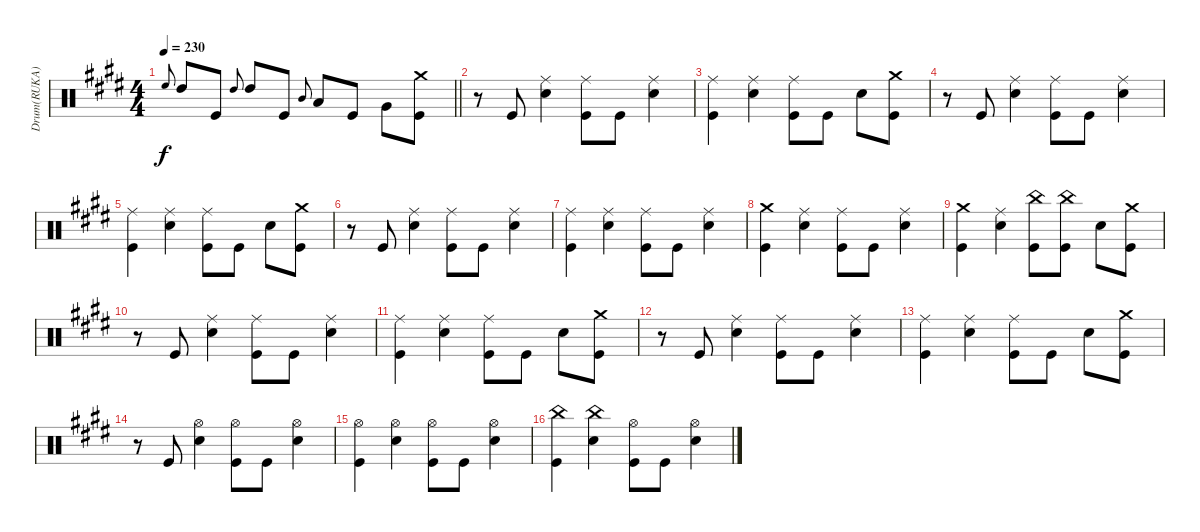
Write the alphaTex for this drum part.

\track ("Drum(RUKA)" "Drum(RUKA)") {instrument percussion}
\staff {score}
\articulation defaults
\ts (4 4)
\tempo 230
\clef neutral
\barLineRight lightlight
\ks e "High Floor Tom (hit)".8{gr onbeat dy f} "High Tom (hit)".8 "Kick (hit)".8 "High Tom (hit)".8{gr onbeat} "High Tom (hit)".8 "Kick (hit)".8 "Mid Tom (hit)".8{gr onbeat} "Low Tom (hit)".8 "Kick (hit)".8 "Very Low Tom (hit)".8
("Crash medium (hit)" "Kick (hit)").8 |
r.8 "Kick (hit)".8 ("Ride (middle)" "Electric Snare (hit)").4 ("Ride (middle)" "Kick (hit)").8 "Kick (hit)".8 ("Ride (middle)" "Electric Snare (hit)").4 |
("Ride (middle)" "Kick (hit)").4 ("Ride (middle)" "Electric Snare (hit)").4 ("Ride (middle)" "Kick (hit)").8 "Kick (hit)".8 "Electric Snare (hit)".8 ("Crash medium (hit)" "Kick (hit)").8 |
r.8 "Kick (hit)".8 ("Ride (middle)" "Electric Snare (hit)").4 ("Ride (middle)" "Kick (hit)").8 "Kick (hit)".8 ("Ride (middle)" "Electric Snare (hit)").4 |
("Ride (middle)" "Kick (hit)").4 ("Ride (middle)" "Electric Snare (hit)").4 ("Ride (middle)" "Kick (hit)").8 "Kick (hit)".8 "Electric Snare (hit)".8 ("Crash medium (hit)" "Kick (hit)").8 |
r.8 "Kick (hit)".8 ("Ride (middle)" "Electric Snare (hit)").4 ("Ride (middle)" "Kick (hit)").8 "Kick (hit)".8 ("Ride (middle)" "Electric Snare (hit)").4 |
("Ride (middle)" "Kick (hit)").4 ("Ride (middle)" "Electric Snare (hit)").4 ("Ride (middle)" "Kick (hit)").8 "Kick (hit)".8 ("Ride (middle)" "Electric Snare (hit)").4 |
("Crash medium (hit)" "Kick (hit)").4 ("Ride (middle)" "Electric Snare (hit)").4 ("Ride (middle)" "Kick (hit)").8 "Kick (hit)".8 ("Ride (middle)" "Electric Snare (hit)").4 |
("Crash medium (hit)" "Kick (hit)").4 ("Ride (middle)" "Electric Snare (hit)").4 ("China (hit)" "Kick (hit)").8 ("China (hit)" "Kick (hit)").8 "Electric Snare (hit)".8 ("Crash medium (hit)" "Kick (hit)").8 |
r.8 "Kick (hit)".8 ("Ride (middle)" "Electric Snare (hit)").4 ("Ride (middle)" "Kick (hit)").8 "Kick (hit)".8 ("Ride (middle)" "Electric Snare (hit)").4 |
("Ride (middle)" "Kick (hit)").4 ("Ride (middle)" "Electric Snare (hit)").4 ("Ride (middle)" "Kick (hit)").8 "Kick (hit)".8 "Electric Snare (hit)".8 ("Crash medium (hit)" "Kick (hit)").8 |
r.8 "Kick (hit)".8 ("Ride (middle)" "Electric Snare (hit)").4 ("Ride (middle)" "Kick (hit)").8 "Kick (hit)".8 ("Ride (middle)" "Electric Snare (hit)").4 |
("Ride (middle)" "Kick (hit)").4 ("Ride (middle)" "Electric Snare (hit)").4 ("Ride (middle)" "Kick (hit)").8 "Kick (hit)".8 "Electric Snare (hit)".8 ("Crash medium (hit)" "Kick (hit)").8 |
r.8 "Kick (hit)".8 ("Hi-Hat (open)" "Electric Snare (hit)").4 ("Hi-Hat (open)" "Kick (hit)").8 "Kick (hit)".8 ("Hi-Hat (open)" "Electric Snare (hit)").4 |
("Hi-Hat (open)" "Kick (hit)").4 ("Hi-Hat (open)" "Electric Snare (hit)").4 ("Hi-Hat (open)" "Kick (hit)").8 "Kick (hit)".8 ("Hi-Hat (open)" "Electric Snare (hit)").4 |
("China (hit)" "Kick (hit)").4 ("China (hit)" "Electric Snare (hit)").4 ("Hi-Hat (open)" "Kick (hit)").8 "Kick (hit)".8 ("Hi-Hat (open)" "Electric Snare (hit)").4
